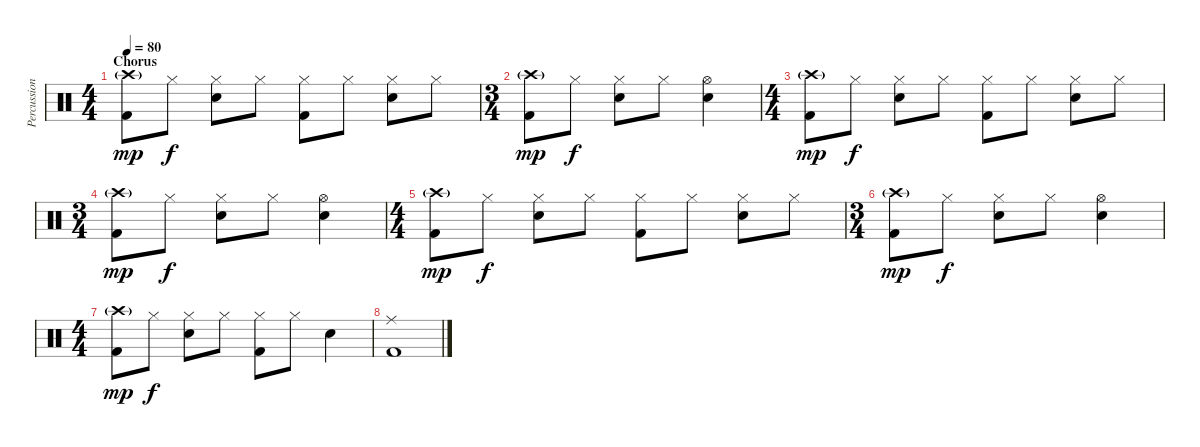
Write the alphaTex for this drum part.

\track ("Percussion" "Percussion") {instrument percussion}
\staff {score}
\articulation defaults
\ts (4 4)
\section ("" "Chorus")
\tempo 80
\clef neutral
\ks c
("Crash high (hit)"{g} "Kick (hit) 2").8{dy mp} "Hi-Hat (closed)".8{dy f} ("Hi-Hat (closed)" "Snare (hit) 2").8 "Hi-Hat (closed)".8 ("Hi-Hat (closed)" "Kick (hit) 2").8 "Hi-Hat (closed)".8 ("Hi-Hat (closed)" "Snare (hit) 2").8 "Hi-Hat (closed)".8 |
\ts (3 4)
("Crash high (hit)"{g} "Kick (hit) 2").8{dy mp} "Hi-Hat (closed)".8{dy f} ("Hi-Hat (closed)" "Snare (hit) 2").8 "Hi-Hat (closed)".8 ("Hi-Hat (open)" "Snare (hit) 2").4 |
\ts (4 4)
("Crash high (hit)"{g} "Kick (hit) 2").8{dy mp} "Hi-Hat (closed)".8{dy f} ("Hi-Hat (closed)" "Snare (hit) 2").8 "Hi-Hat (closed)".8 ("Hi-Hat (closed)" "Kick (hit) 2").8 "Hi-Hat (closed)".8 ("Hi-Hat (closed)" "Snare (hit) 2").8 "Hi-Hat (closed)".8 |
\ts (3 4)
("Crash high (hit)"{g} "Kick (hit) 2").8{dy mp} "Hi-Hat (closed)".8{dy f} ("Hi-Hat (closed)" "Snare (hit) 2").8 "Hi-Hat (closed)".8 ("Hi-Hat (open)" "Snare (hit) 2").4 |
\ts (4 4)
("Crash high (hit)"{g} "Kick (hit) 2").8{dy mp} "Hi-Hat (closed)".8{dy f} ("Hi-Hat (closed)" "Snare (hit) 2").8 "Hi-Hat (closed)".8 ("Hi-Hat (closed)" "Kick (hit) 2").8 "Hi-Hat (closed)".8 ("Hi-Hat (closed)" "Snare (hit) 2").8 "Hi-Hat (closed)".8 |
\ts (3 4)
("Crash high (hit)"{g} "Kick (hit) 2").8{dy mp} "Hi-Hat (closed)".8{dy f} ("Hi-Hat (closed)" "Snare (hit) 2").8 "Hi-Hat (closed)".8 ("Hi-Hat (open)" "Snare (hit) 2").4 |
\ts (4 4)
("Crash high (hit)"{g} "Kick (hit) 2").8{dy mp} "Hi-Hat (closed)".8{dy f} ("Hi-Hat (closed)" "Snare (hit) 2").8 "Hi-Hat (closed)".8 ("Hi-Hat (closed)" "Kick (hit) 2").8 "Hi-Hat (closed)".8 "Snare (hit) 2".4 |
("Ride (middle)" "Kick (hit) 2").1
